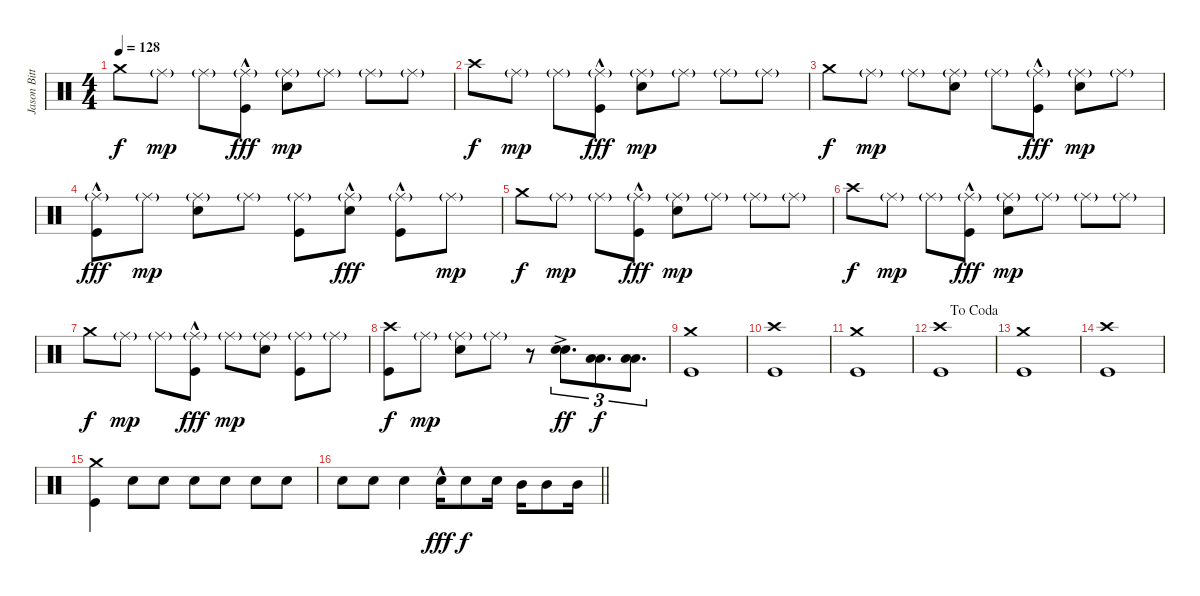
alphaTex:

\track ("Jason Bittner" "Jason Bitt") {instrument percussion}
\staff {score}
\articulation defaults
\ts (4 4)
\tempo 128
\clef neutral
\ks c "Crash medium (hit)".8{dy f} "Ride (middle)"{g}.8{dy mp} "Ride (middle)"{g}.8
("Ride (middle)"{g} "Kick (hit)"{hac}).8{dy fff} ("Ride (middle)"{g} "Electric Snare (hit)").8{dy mp} "Ride (middle)"{g}.8 "Ride (middle)"{g}.8 "Ride (middle)"{g}.8 |
"Crash high (hit)".8{dy f} "Ride (middle)"{g}.8{dy mp} "Ride (middle)"{g}.8 ("Ride (middle)"{g} "Kick (hit)"{hac}).8{dy fff} ("Ride (middle)"{g} "Electric Snare (hit)").8{dy mp} "Ride (middle)"{g}.8 "Ride (middle)"{g}.8 "Ride (middle)"{g}.8 |
"Crash medium (hit)".8{dy f} "Ride (middle)"{g}.8{dy mp} "Ride (middle)"{g}.8 ("Ride (middle)"{g} "Electric Snare (hit)").8 "Ride (middle)"{g}.8 ("Ride (middle)"{g} "Kick (hit)"{hac}).8{dy fff} ("Ride (middle)"{g} "Electric Snare (hit)").8{dy mp} "Ride (middle)"{g}.8 |
("Ride (middle)"{g} "Kick (hit)"{hac}).8{dy fff} "Ride (middle)"{g}.8{dy mp} ("Ride (middle)"{g} "Electric Snare (hit)").8 "Ride (middle)"{g}.8 ("Ride (middle)"{g} "Kick (hit)").8 ("Ride (middle)"{g} "Electric Snare (hit)"{hac}).8{dy fff} ("Ride (middle)"{g} "Kick (hit)"{hac}).8 "Ride (middle)"{g}.8{dy mp} |
"Crash medium (hit)".8{dy f} "Ride (middle)"{g}.8{dy mp} "Ride (middle)"{g}.8 ("Ride (middle)"{g} "Kick (hit)"{hac}).8{dy fff} ("Ride (middle)"{g} "Electric Snare (hit)").8{dy mp} "Ride (middle)"{g}.8 "Ride (middle)"{g}.8 "Ride (middle)"{g}.8 |
"Crash high (hit)".8{dy f} "Ride (middle)"{g}.8{dy mp} "Ride (middle)"{g}.8 ("Ride (middle)"{g} "Kick (hit)"{hac}).8{dy fff} ("Ride (middle)"{g} "Electric Snare (hit)").8{dy mp} "Ride (middle)"{g}.8 "Ride (middle)"{g}.8 "Ride (middle)"{g}.8 |
"Crash medium (hit)".8{dy f} "Ride (middle)"{g}.8{dy mp} "Ride (middle)"{g}.8 ("Ride (middle)"{g} "Kick (hit)"{hac}).8{dy fff} "Ride (middle)"{g}.8{dy mp} ("Ride (middle)"{g} "Electric Snare (hit)").8 ("Ride (middle)"{g} "Kick (hit)").8 "Ride (middle)"{g}.8 |
("Crash high (hit)" "Kick (hit)").8{dy f} "Ride (middle)"{g}.8{dy mp} ("Ride (middle)"{g} "Electric Snare (hit)").8 "Ride (middle)"{g}.8 r.8 ("Electric Snare (hit)"{ac} "Electric Snare (hit)"{ac}).8{d tu (3 2) dy ff beam merge} ("Low Tom (hit)" "Low Tom (hit)").8{d tu (3 2) dy f} ("Low Floor Tom (hit)" "Low Floor Tom (hit)").8{d tu (3 2)} |
("Crash medium (hit)" "Kick (hit)").1 |
("Crash high (hit)" "Kick (hit)").1 |
("Crash medium (hit)" "Kick (hit)").1 |
\jump dacoda
("Crash high (hit)" "Kick (hit)").1 |
("Crash medium (hit)" "Kick (hit)").1 |
("Crash high (hit)" "Kick (hit)").1 |
("Crash medium (hit)" "Kick (hit)").4 "Electric Snare (hit)".8 "Electric Snare (hit)".8 "Electric Snare (hit)".8 "Electric Snare (hit)".8 "Electric Snare (hit)".8 "Electric Snare (hit)".8 |
\barLineRight lightlight "Electric Snare (hit)".8 "Electric Snare (hit)".8 "Electric Snare (hit)".4 "Electric Snare (hit)"{hac}.16{dy fff} "Electric Snare (hit)".8{dy f} "Electric Snare (hit)".16 "Mid Tom (hit)".16 "Mid Tom (hit)".8 "Mid Tom (hit)".16
